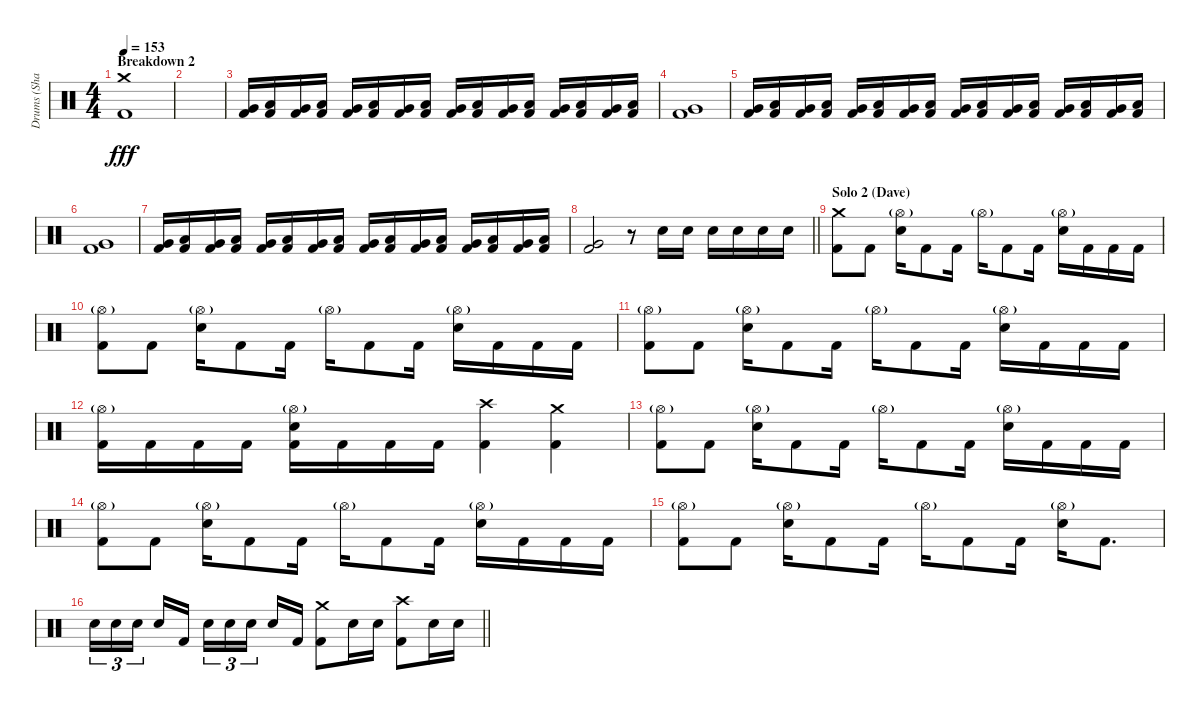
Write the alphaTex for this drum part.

\track ("Drums (Shawn)" "Drums (Sha") {instrument percussion}
\staff {score}
\articulation defaults
\ts (4 4)
\section ("" "Breakdown 2")
\tempo 153
\clef neutral
\ks c
("Crash medium (hit)" "Kick (hit) 2").1{dy fff} |
|
("Very Low Tom (hit)" "Kick (hit) 2").16 ("Low Floor Tom (hit)" "Kick (hit) 2").16 ("Very Low Tom (hit)" "Kick (hit) 2").16 ("Low Floor Tom (hit)" "Kick (hit) 2").16 ("Very Low Tom (hit)" "Kick (hit) 2").16 ("Low Floor Tom (hit)" "Kick (hit) 2").16 ("Very Low Tom (hit)" "Kick (hit) 2").16 ("Low Floor Tom (hit)" "Kick (hit) 2").16 ("Very Low Tom (hit)" "Kick (hit) 2").16 ("Low Floor Tom (hit)" "Kick (hit) 2").16 ("Very Low Tom (hit)" "Kick (hit) 2").16 ("Low Floor Tom (hit)" "Kick (hit) 2").16 ("Very Low Tom (hit)" "Kick (hit) 2").16 ("Low Floor Tom (hit)" "Kick (hit) 2").16 ("Very Low Tom (hit)" "Kick (hit) 2").16 ("Low Floor Tom (hit)" "Kick (hit) 2").16 |
("Very Low Tom (hit)" "Kick (hit) 2").1 |
("Very Low Tom (hit)" "Kick (hit) 2").16 ("Low Floor Tom (hit)" "Kick (hit) 2").16 ("Very Low Tom (hit)" "Kick (hit) 2").16 ("Low Floor Tom (hit)" "Kick (hit) 2").16 ("Very Low Tom (hit)" "Kick (hit) 2").16 ("Low Floor Tom (hit)" "Kick (hit) 2").16 ("Very Low Tom (hit)" "Kick (hit) 2").16 ("Low Floor Tom (hit)" "Kick (hit) 2").16 ("Very Low Tom (hit)" "Kick (hit) 2").16 ("Low Floor Tom (hit)" "Kick (hit) 2").16 ("Very Low Tom (hit)" "Kick (hit) 2").16 ("Low Floor Tom (hit)" "Kick (hit) 2").16 ("Very Low Tom (hit)" "Kick (hit) 2").16 ("Low Floor Tom (hit)" "Kick (hit) 2").16 ("Very Low Tom (hit)" "Kick (hit) 2").16 ("Low Floor Tom (hit)" "Kick (hit) 2").16 |
("Very Low Tom (hit)" "Kick (hit) 2").1 |
("Very Low Tom (hit)" "Kick (hit) 2").16 ("Low Floor Tom (hit)" "Kick (hit) 2").16 ("Very Low Tom (hit)" "Kick (hit) 2").16 ("Low Floor Tom (hit)" "Kick (hit) 2").16 ("Very Low Tom (hit)" "Kick (hit) 2").16 ("Low Floor Tom (hit)" "Kick (hit) 2").16 ("Very Low Tom (hit)" "Kick (hit) 2").16 ("Low Floor Tom (hit)" "Kick (hit) 2").16 ("Very Low Tom (hit)" "Kick (hit) 2").16 ("Low Floor Tom (hit)" "Kick (hit) 2").16 ("Very Low Tom (hit)" "Kick (hit) 2").16 ("Low Floor Tom (hit)" "Kick (hit) 2").16 ("Very Low Tom (hit)" "Kick (hit) 2").16 ("Low Floor Tom (hit)" "Kick (hit) 2").16 ("Very Low Tom (hit)" "Kick (hit) 2").16 ("Low Floor Tom (hit)" "Kick (hit) 2").16 |
\barLineRight lightlight
("Very Low Tom (hit)" "Kick (hit) 2").2 r.8 "Snare (hit) 2".16 "Snare (hit) 2".16 "Snare (hit) 2".16 "Snare (hit) 2".16 "Snare (hit) 2".16 "Snare (hit) 2".16 |
\section ("" "Solo 2 (Dave)")
("Crash medium (hit)" "Kick (hit) 2").8 "Kick (hit) 2".8 ("Hi-Hat (open)"{g} "Snare (hit) 2").16 "Kick (hit) 2".8 "Kick (hit) 2".16 "Hi-Hat (open)"{g}.16 "Kick (hit) 2".8 "Kick (hit) 2".16 ("Hi-Hat (open)"{g} "Snare (hit) 2").16 "Kick (hit) 2".16 "Kick (hit) 2".16 "Kick (hit) 2".16 |
("Hi-Hat (open)"{g} "Kick (hit) 2").8 "Kick (hit) 2".8 ("Hi-Hat (open)"{g} "Snare (hit) 2").16 "Kick (hit) 2".8 "Kick (hit) 2".16 "Hi-Hat (open)"{g}.16 "Kick (hit) 2".8 "Kick (hit) 2".16 ("Hi-Hat (open)"{g} "Snare (hit) 2").16 "Kick (hit) 2".16 "Kick (hit) 2".16 "Kick (hit) 2".16 |
("Hi-Hat (open)"{g} "Kick (hit) 2").8 "Kick (hit) 2".8 ("Hi-Hat (open)"{g} "Snare (hit) 2").16 "Kick (hit) 2".8 "Kick (hit) 2".16 "Hi-Hat (open)"{g}.16 "Kick (hit) 2".8 "Kick (hit) 2".16 ("Hi-Hat (open)"{g} "Snare (hit) 2").16 "Kick (hit) 2".16 "Kick (hit) 2".16 "Kick (hit) 2".16 |
("Hi-Hat (open)"{g} "Kick (hit) 2").16 "Kick (hit) 2".16 "Kick (hit) 2".16 "Kick (hit) 2".16 ("Hi-Hat (open)"{g} "Snare (hit) 2" "Kick (hit) 2").16 "Kick (hit) 2".16 "Kick (hit) 2".16 "Kick (hit) 2".16 ("Crash high (hit)" "Kick (hit) 2").4 ("Crash medium (hit)" "Kick (hit) 2").4 |
("Hi-Hat (open)"{g} "Kick (hit) 2").8 "Kick (hit) 2".8 ("Hi-Hat (open)"{g} "Snare (hit) 2").16 "Kick (hit) 2".8 "Kick (hit) 2".16 "Hi-Hat (open)"{g}.16 "Kick (hit) 2".8 "Kick (hit) 2".16 ("Hi-Hat (open)"{g} "Snare (hit) 2").16 "Kick (hit) 2".16 "Kick (hit) 2".16 "Kick (hit) 2".16 |
("Hi-Hat (open)"{g} "Kick (hit) 2").8 "Kick (hit) 2".8 ("Hi-Hat (open)"{g} "Snare (hit) 2").16 "Kick (hit) 2".8 "Kick (hit) 2".16 "Hi-Hat (open)"{g}.16 "Kick (hit) 2".8 "Kick (hit) 2".16 ("Hi-Hat (open)"{g} "Snare (hit) 2").16 "Kick (hit) 2".16 "Kick (hit) 2".16 "Kick (hit) 2".16 |
("Hi-Hat (open)"{g} "Kick (hit) 2").8 "Kick (hit) 2".8 ("Hi-Hat (open)"{g} "Snare (hit) 2").16 "Kick (hit) 2".8 "Kick (hit) 2".16 "Hi-Hat (open)"{g}.16 "Kick (hit) 2".8 "Kick (hit) 2".16 ("Hi-Hat (open)"{g} "Snare (hit) 2").16 "Kick (hit) 2".8{d} |
\barLineRight lightlight "Snare (hit) 2".16{tu (3 2)} "Snare (hit) 2".16{tu (3 2)} "Snare (hit) 2".16{tu (3 2) beam splitsecondary} "Snare (hit) 2".16 "Kick (hit) 2".16 "Snare (hit) 2".16{tu (3 2)} "Snare (hit) 2".16{tu (3 2)} "Snare (hit) 2".16{tu (3 2) beam splitsecondary} "Snare (hit) 2".16 "Kick (hit) 2".16
("Crash medium (hit)" "Kick (hit) 2").8 "Snare (hit) 2".16 "Snare (hit) 2".16 ("Crash high (hit)" "Kick (hit) 2").8 "Snare (hit) 2".16 "Snare (hit) 2".16
